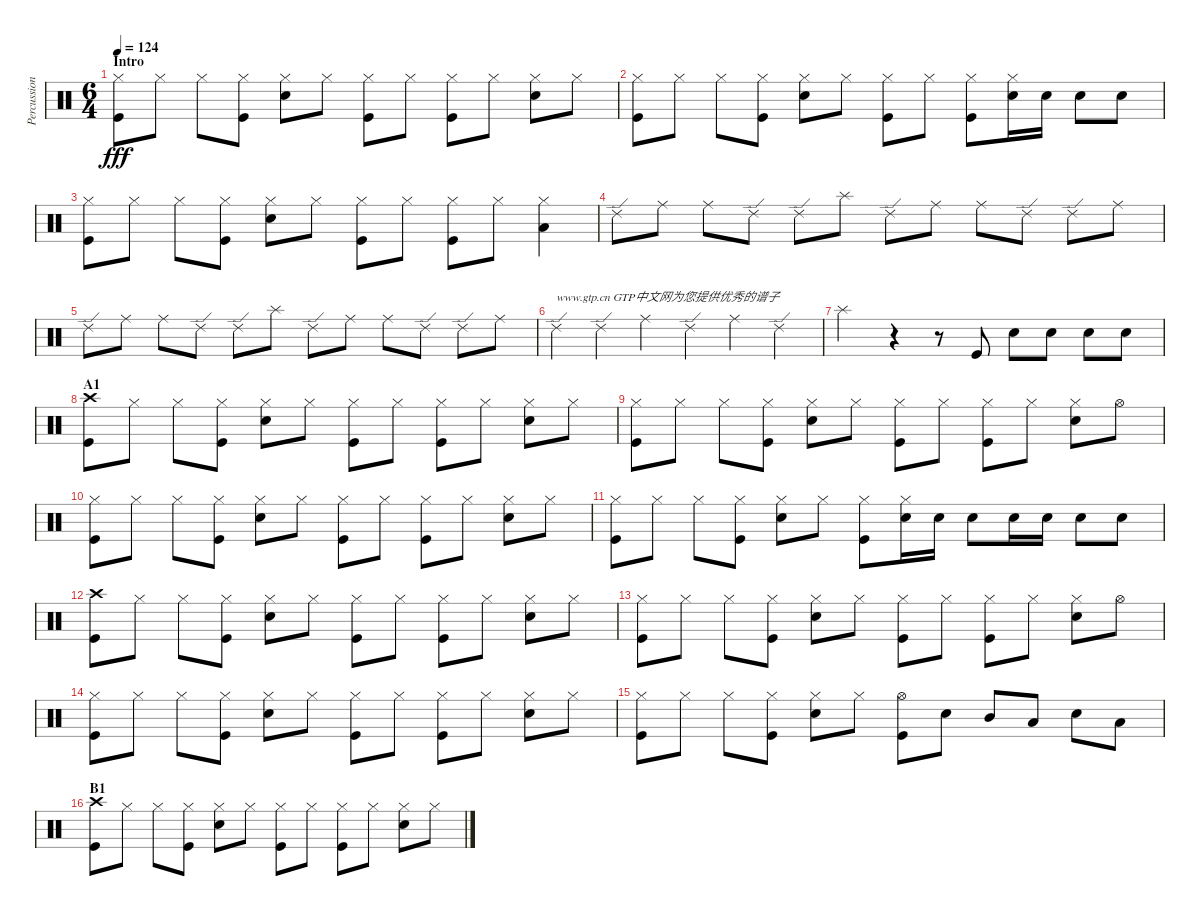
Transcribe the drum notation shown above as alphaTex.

\track ("Percussion" "Percussion") {instrument percussion}
\staff {score}
\articulation defaults
\ts (6 4)
\section ("" "Intro")
\tempo 124
\clef neutral
\ks c
("Hi-Hat (closed)" "Kick (hit)").8{dy fff} "Hi-Hat (closed)".8 "Hi-Hat (closed)".8 ("Hi-Hat (closed)" "Kick (hit)").8 ("Hi-Hat (closed)" "Snare (hit) 2").8 "Hi-Hat (closed)".8 ("Hi-Hat (closed)" "Kick (hit)").8 "Hi-Hat (closed)".8 ("Hi-Hat (closed)" "Kick (hit)").8 "Hi-Hat (closed)".8 ("Hi-Hat (closed)" "Snare (hit) 2").8 "Hi-Hat (closed)".8 |
("Hi-Hat (closed)" "Kick (hit)").8 "Hi-Hat (closed)".8 "Hi-Hat (closed)".8 ("Hi-Hat (closed)" "Kick (hit)").8 ("Hi-Hat (closed)" "Snare (hit) 2").8 "Hi-Hat (closed)".8 ("Hi-Hat (closed)" "Kick (hit)").8 "Hi-Hat (closed)".8 ("Hi-Hat (closed)" "Kick (hit)").8 ("Hi-Hat (closed)" "Snare (hit) 2").16 "Snare (hit) 2".16 "Snare (hit) 2".8 "Snare (hit) 2".8 |
("Hi-Hat (closed)" "Kick (hit)").8 "Hi-Hat (closed)".8 "Hi-Hat (closed)".8 ("Hi-Hat (closed)" "Kick (hit)").8 ("Hi-Hat (closed)" "Snare (hit) 2").8 "Hi-Hat (closed)".8 ("Hi-Hat (closed)" "Kick (hit)").8 "Hi-Hat (closed)".8 ("Hi-Hat (closed)" "Kick (hit)").8 "Hi-Hat (closed)".8 ("Hi-Hat (closed)" "Low Floor Tom (hit)").4 |
"Ride (edge) 2".8 "Ride (middle)".8 "Ride (middle)".8 "Ride (edge) 2".8 "Ride (edge) 2".8 "Splash (hit)".8 "Ride (edge) 2".8 "Ride (middle)".8 "Ride (middle)".8 "Ride (edge) 2".8 "Ride (edge) 2".8 "Ride (middle)".8 |
"Ride (edge) 2".8 "Ride (middle)".8 "Ride (middle)".8 "Ride (edge) 2".8 "Ride (edge) 2".8 "Splash (hit)".8 "Ride (edge) 2".8 "Ride (middle)".8 "Ride (middle)".8 "Ride (edge) 2".8 "Ride (edge) 2".8 "Ride (middle)".8 |
"Ride (edge) 2".4{txt "www.gtp.cn GTP中文网为您提供优秀的谱子"} "Ride (edge) 2".4 "Ride (middle)".4 "Ride (edge) 2".4 "Ride (middle)".4 "Ride (edge) 2".4 |
"Splash (hit)".2 r.4 r.8 "Kick (hit)".8 "Snare (hit) 2".8 "Snare (hit) 2".8 "Snare (hit) 2".8 "Snare (hit) 2".8 |
\section ("" "A1")
("Crash high (hit)" "Kick (hit)").8 "Hi-Hat (closed)".8 "Hi-Hat (closed)".8 ("Hi-Hat (closed)" "Kick (hit)").8 ("Hi-Hat (closed)" "Snare (hit) 2").8 "Hi-Hat (closed)".8 ("Hi-Hat (closed)" "Kick (hit)").8 "Hi-Hat (closed)".8 ("Hi-Hat (closed)" "Kick (hit)").8 "Hi-Hat (closed)".8 ("Hi-Hat (closed)" "Snare (hit) 2").8 "Hi-Hat (closed)".8 |
("Hi-Hat (closed)" "Kick (hit)").8 "Hi-Hat (closed)".8 "Hi-Hat (closed)".8 ("Hi-Hat (closed)" "Kick (hit)").8 ("Hi-Hat (closed)" "Snare (hit) 2").8 "Hi-Hat (closed)".8 ("Hi-Hat (closed)" "Kick (hit)").8 "Hi-Hat (closed)".8 ("Hi-Hat (closed)" "Kick (hit)").8 "Hi-Hat (closed)".8 ("Hi-Hat (closed)" "Snare (hit) 2").8 "Hi-Hat (open)".8 |
("Hi-Hat (closed)" "Kick (hit)").8 "Hi-Hat (closed)".8 "Hi-Hat (closed)".8 ("Hi-Hat (closed)" "Kick (hit)").8 ("Hi-Hat (closed)" "Snare (hit) 2").8 "Hi-Hat (closed)".8 ("Hi-Hat (closed)" "Kick (hit)").8 "Hi-Hat (closed)".8 ("Hi-Hat (closed)" "Kick (hit)").8 "Hi-Hat (closed)".8 ("Hi-Hat (closed)" "Snare (hit) 2").8 "Hi-Hat (closed)".8 |
("Hi-Hat (closed)" "Kick (hit)").8 "Hi-Hat (closed)".8 "Hi-Hat (closed)".8 ("Hi-Hat (closed)" "Kick (hit)").8 ("Hi-Hat (closed)" "Snare (hit) 2").8 "Hi-Hat (closed)".8 ("Hi-Hat (closed)" "Kick (hit)").8 ("Hi-Hat (closed)" "Snare (hit) 2").16 "Snare (hit) 2".16 "Snare (hit) 2".8 "Snare (hit) 2".16 "Snare (hit) 2".16 "Snare (hit) 2".8 "Snare (hit) 2".8 |
("Crash high (hit)" "Kick (hit)").8 "Hi-Hat (closed)".8 "Hi-Hat (closed)".8 ("Hi-Hat (closed)" "Kick (hit)").8 ("Hi-Hat (closed)" "Snare (hit) 2").8 "Hi-Hat (closed)".8 ("Hi-Hat (closed)" "Kick (hit)").8 "Hi-Hat (closed)".8 ("Hi-Hat (closed)" "Kick (hit)").8 "Hi-Hat (closed)".8 ("Hi-Hat (closed)" "Snare (hit) 2").8 "Hi-Hat (closed)".8 |
("Hi-Hat (closed)" "Kick (hit)").8 "Hi-Hat (closed)".8 "Hi-Hat (closed)".8 ("Hi-Hat (closed)" "Kick (hit)").8 ("Hi-Hat (closed)" "Snare (hit) 2").8 "Hi-Hat (closed)".8 ("Hi-Hat (closed)" "Kick (hit)").8 "Hi-Hat (closed)".8 ("Hi-Hat (closed)" "Kick (hit)").8 "Hi-Hat (closed)".8 ("Hi-Hat (closed)" "Snare (hit) 2").8 "Hi-Hat (open)".8 |
("Hi-Hat (closed)" "Kick (hit)").8 "Hi-Hat (closed)".8 "Hi-Hat (closed)".8 ("Hi-Hat (closed)" "Kick (hit)").8 ("Hi-Hat (closed)" "Snare (hit) 2").8 "Hi-Hat (closed)".8 ("Hi-Hat (closed)" "Kick (hit)").8 "Hi-Hat (closed)".8 ("Hi-Hat (closed)" "Kick (hit)").8 "Hi-Hat (closed)".8 ("Hi-Hat (closed)" "Snare (hit) 2").8 "Hi-Hat (closed)".8 |
("Hi-Hat (closed)" "Kick (hit)").8 "Hi-Hat (closed)".8 "Hi-Hat (closed)".8 ("Hi-Hat (closed)" "Kick (hit)").8 ("Hi-Hat (closed)" "Snare (hit) 2").8 "Hi-Hat (closed)".8 ("Hi-Hat (open)" "Kick (hit)").8 "Snare (hit) 2".8 "Mid Tom (hit)".8 "Low Tom (hit)".8 "Snare (hit) 2".8 "Low Tom (hit)".8 |
\section ("" "B1")
("Crash high (hit)" "Kick (hit)").8 "Hi-Hat (closed)".8 "Hi-Hat (closed)".8 ("Hi-Hat (closed)" "Kick (hit)").8 ("Hi-Hat (closed)" "Snare (hit) 2").8 "Hi-Hat (closed)".8 ("Hi-Hat (closed)" "Kick (hit)").8 "Hi-Hat (closed)".8 ("Hi-Hat (closed)" "Kick (hit)").8 "Hi-Hat (closed)".8 ("Hi-Hat (closed)" "Snare (hit) 2").8 "Hi-Hat (closed)".8
